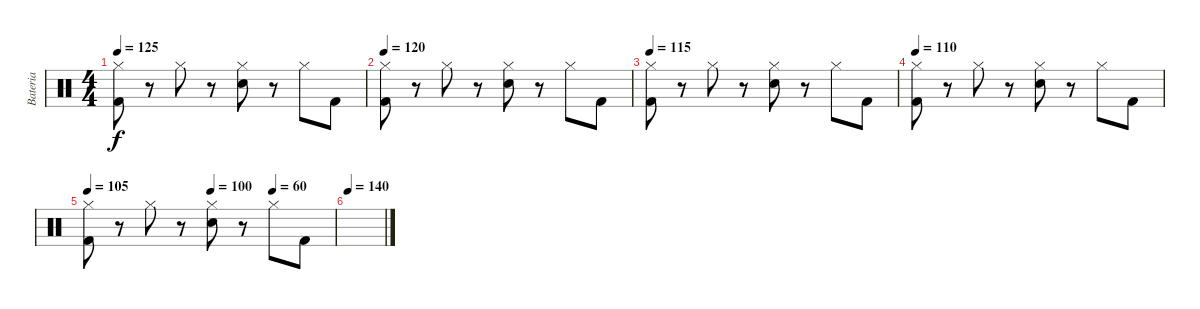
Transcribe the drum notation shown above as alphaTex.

\track ("Bateria" "Bateria") {instrument percussion}
\staff {score}
\articulation defaults
\ts (4 4)
\tempo 125
\clef neutral
\ks c
("Hi-Hat (closed)" "Kick (hit) 2").8{dy f} r.8 "Hi-Hat (closed)".8 r.8 ("Hi-Hat (closed)" "Snare (hit) 2").8 r.8 "Hi-Hat (closed)".8 "Kick (hit) 2".8 |
\tempo 120
("Hi-Hat (closed)" "Kick (hit) 2").8 r.8 "Hi-Hat (closed)".8 r.8 ("Hi-Hat (closed)" "Snare (hit) 2").8 r.8 "Hi-Hat (closed)".8 "Kick (hit) 2".8 |
\tempo 115
("Hi-Hat (closed)" "Kick (hit) 2").8 r.8 "Hi-Hat (closed)".8 r.8 ("Hi-Hat (closed)" "Snare (hit) 2").8 r.8 "Hi-Hat (closed)".8 "Kick (hit) 2".8 |
\tempo 110
("Hi-Hat (closed)" "Kick (hit) 2").8 r.8 "Hi-Hat (closed)".8 r.8 ("Hi-Hat (closed)" "Snare (hit) 2").8 r.8 "Hi-Hat (closed)".8 "Kick (hit) 2".8 |
\tempo 105
\tempo (100 0.5)
\tempo (60 0.75)
("Hi-Hat (closed)" "Kick (hit) 2").8 r.8 "Hi-Hat (closed)".8 r.8 ("Hi-Hat (closed)" "Snare (hit) 2").8 r.8 "Hi-Hat (closed)".8 "Kick (hit) 2".8 |
\tempo 140
